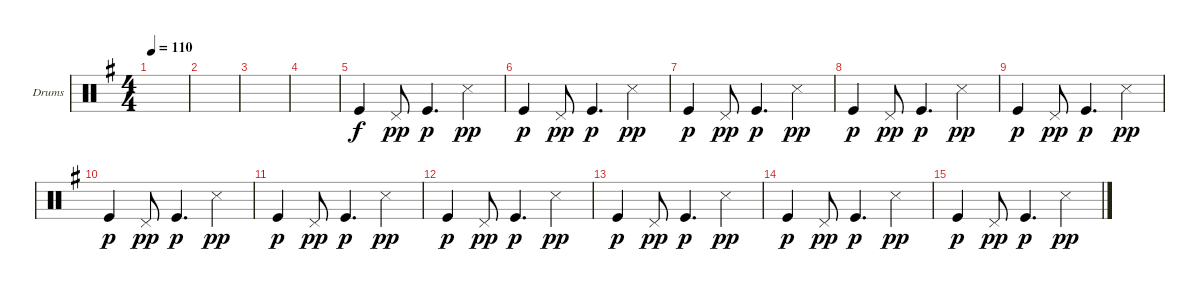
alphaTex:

\defaultSystemsLayout 4
\bracketExtendMode groupsimilarinstruments
\firstSystemTrackNameOrientation horizontal
\otherSystemsTrackNameOrientation horizontal
\track ("Drumkit" "Drums") {instrument percussion}
\staff {score}
\articulation defaults
\ts (4 4)
\tempo 110
\clef neutral
\ks g
|
|
|
|
"Kick (hit)".4 "Pedal Hi-Hat (hit)".8{dy pp} "Kick (hit)".4{d dy p} "Snare (side stick) 3".4{dy pp} |
"Kick (hit)".4{dy p} "Pedal Hi-Hat (hit)".8{dy pp} "Kick (hit)".4{d dy p} "Snare (side stick) 3".4{dy pp} |
"Kick (hit)".4{dy p} "Pedal Hi-Hat (hit)".8{dy pp} "Kick (hit)".4{d dy p} "Snare (side stick) 3".4{dy pp} |
"Kick (hit)".4{dy p} "Pedal Hi-Hat (hit)".8{dy pp} "Kick (hit)".4{d dy p} "Snare (side stick) 3".4{dy pp} |
"Kick (hit)".4{dy p} "Pedal Hi-Hat (hit)".8{dy pp} "Kick (hit)".4{d dy p} "Snare (side stick) 3".4{dy pp} |
"Kick (hit)".4{dy p} "Pedal Hi-Hat (hit)".8{dy pp} "Kick (hit)".4{d dy p} "Snare (side stick) 3".4{dy pp} |
"Kick (hit)".4{dy p} "Pedal Hi-Hat (hit)".8{dy pp} "Kick (hit)".4{d dy p} "Snare (side stick) 3".4{dy pp} |
"Kick (hit)".4{dy p} "Pedal Hi-Hat (hit)".8{dy pp} "Kick (hit)".4{d dy p} "Snare (side stick) 3".4{dy pp} |
"Kick (hit)".4{dy p} "Pedal Hi-Hat (hit)".8{dy pp} "Kick (hit)".4{d dy p} "Snare (side stick) 3".4{dy pp} |
"Kick (hit)".4{dy p} "Pedal Hi-Hat (hit)".8{dy pp} "Kick (hit)".4{d dy p} "Snare (side stick) 3".4{dy pp} |
"Kick (hit)".4{dy p} "Pedal Hi-Hat (hit)".8{dy pp} "Kick (hit)".4{d dy p} "Snare (side stick) 3".4{dy pp}
